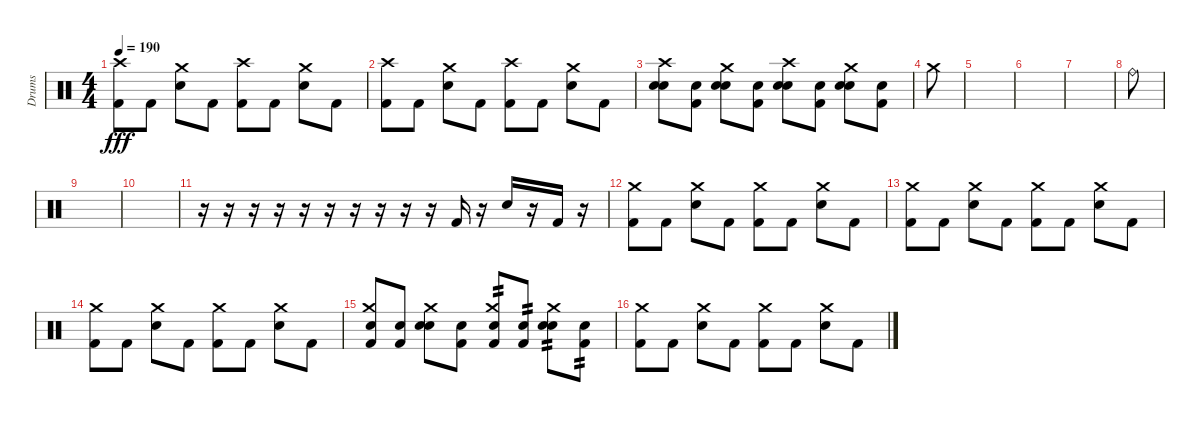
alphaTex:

\track ("Drums" "Drums") {instrument percussion}
\staff {score}
\articulation defaults
\ts (4 4)
\tempo 190
\clef neutral
\ks c
("Crash high (hit)" "Kick (hit) 2").8{dy fff} "Kick (hit) 2".8 ("Crash medium (hit)" "Snare (hit) 2").8 "Kick (hit) 2".8 ("Crash high (hit)" "Kick (hit) 2").8 "Kick (hit) 2".8 ("Crash medium (hit)" "Snare (hit) 2").8 "Kick (hit) 2".8 |
("Crash high (hit)" "Kick (hit) 2").8 "Kick (hit) 2".8 ("Crash medium (hit)" "Snare (hit) 2").8 "Kick (hit) 2".8 ("Crash high (hit)" "Kick (hit) 2").8 "Kick (hit) 2".8 ("Crash medium (hit)" "Snare (hit) 2").8 "Kick (hit) 2".8 |
("Crash high (hit)" "Electric Snare (hit)" "Snare (hit) 2").8 ("Electric Snare (hit)" "Kick (hit) 2").8 ("Crash medium (hit)" "Electric Snare (hit)" "Snare (hit) 2").8 ("Electric Snare (hit)" "Kick (hit) 2").8 ("Crash high (hit)" "Electric Snare (hit)" "Snare (hit) 2").8 ("Electric Snare (hit)" "Kick (hit) 2").8 ("Crash medium (hit)" "Electric Snare (hit)" "Snare (hit) 2").8 ("Electric Snare (hit)" "Kick (hit) 2").8 |
"Crash medium (hit)".8 |
|
|
|
"Ride (bell)".8 |
|
|
r.16 r.16 r.16 r.16 r.16 r.16 r.16 r.16 r.16 r.16 "Kick (hit) 2".16 r.16 "Snare (hit) 2".16 r.16 "Kick (hit) 2".16 r.16 |
("Crash medium (hit)" "Kick (hit) 2").8 "Kick (hit) 2".8 ("Crash medium (hit)" "Snare (hit) 2").8 "Kick (hit) 2".8 ("Crash medium (hit)" "Kick (hit) 2").8 "Kick (hit) 2".8 ("Crash medium (hit)" "Snare (hit) 2").8 "Kick (hit) 2".8 |
("Crash medium (hit)" "Kick (hit) 2").8 "Kick (hit) 2".8 ("Crash medium (hit)" "Snare (hit) 2").8 "Kick (hit) 2".8 ("Crash medium (hit)" "Kick (hit) 2").8 "Kick (hit) 2".8 ("Crash medium (hit)" "Snare (hit) 2").8 "Kick (hit) 2".8 |
("Crash medium (hit)" "Kick (hit) 2").8 "Kick (hit) 2".8 ("Crash medium (hit)" "Snare (hit) 2").8 "Kick (hit) 2".8 ("Crash medium (hit)" "Kick (hit) 2").8 "Kick (hit) 2".8 ("Crash medium (hit)" "Snare (hit) 2").8 "Kick (hit) 2".8 |
("Crash medium (hit)" "Electric Snare (hit)" "Kick (hit) 2").8 ("Electric Snare (hit)" "Kick (hit) 2").8 ("Crash medium (hit)" "Electric Snare (hit)" "Snare (hit) 2").8 ("Electric Snare (hit)" "Kick (hit) 2").8 ("Crash medium (hit)" "Electric Snare (hit)" "Kick (hit) 2").8{tp 2} ("Electric Snare (hit)" "Kick (hit) 2").8{tp 2} ("Crash medium (hit)" "Electric Snare (hit)" "Snare (hit) 2").8{tp 2} ("Electric Snare (hit)" "Kick (hit) 2").8{tp 2} |
("Crash medium (hit)" "Kick (hit) 2").8 "Kick (hit) 2".8 ("Crash medium (hit)" "Snare (hit) 2").8 "Kick (hit) 2".8 ("Crash medium (hit)" "Kick (hit) 2").8 "Kick (hit) 2".8 ("Crash medium (hit)" "Snare (hit) 2").8 "Kick (hit) 2".8
